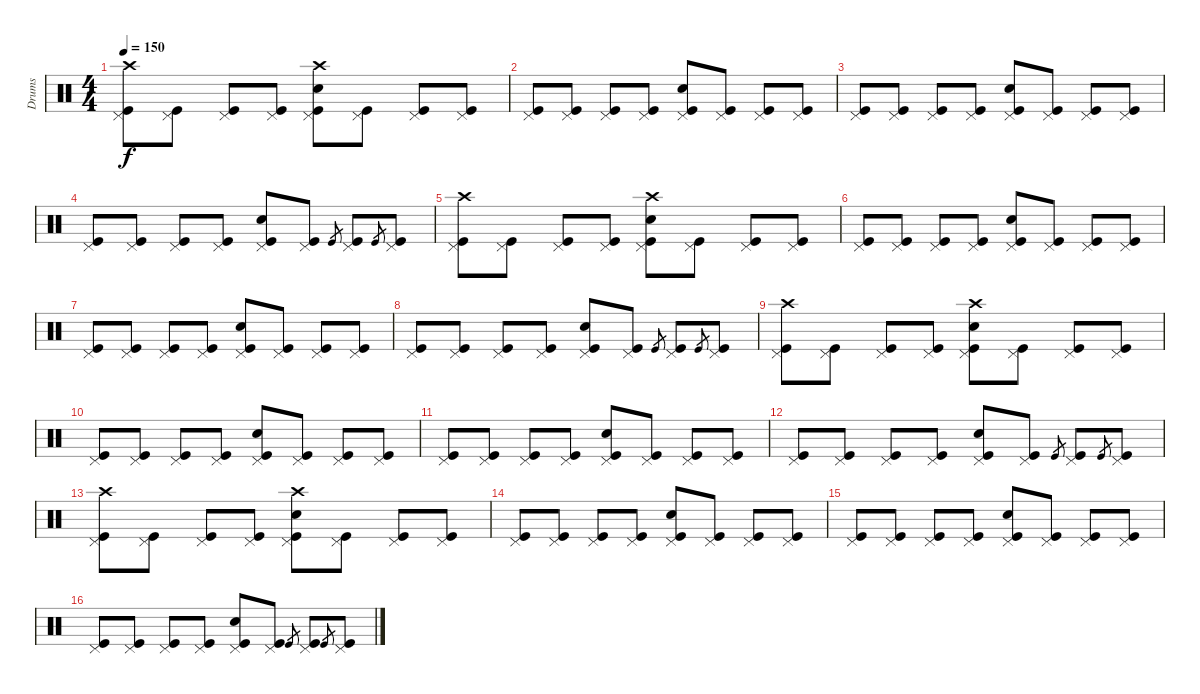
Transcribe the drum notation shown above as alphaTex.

\track ("Drums" "Drums") {instrument percussion}
\staff {score}
\articulation defaults
\ts (4 4)
\section ("" "")
\tempo 150
\clef neutral
\ks c
("Crash high (hit)" "Pedal Hi-Hat (hit)" "Kick (hit)").8{dy f} ("Pedal Hi-Hat (hit)" "Kick (hit)").8 ("Pedal Hi-Hat (hit)" "Kick (hit)").8 ("Pedal Hi-Hat (hit)" "Kick (hit)").8 ("Crash high (hit)" "Pedal Hi-Hat (hit)" "Snare (hit) 2" "Kick (hit)").8 ("Pedal Hi-Hat (hit)" "Kick (hit)").8 ("Pedal Hi-Hat (hit)" "Kick (hit)").8 ("Pedal Hi-Hat (hit)" "Kick (hit)").8 |
("Pedal Hi-Hat (hit)" "Kick (hit)").8 ("Pedal Hi-Hat (hit)" "Kick (hit)").8 ("Pedal Hi-Hat (hit)" "Kick (hit)").8 ("Pedal Hi-Hat (hit)" "Kick (hit)").8 ("Pedal Hi-Hat (hit)" "Snare (hit) 2" "Kick (hit)").8 ("Pedal Hi-Hat (hit)" "Kick (hit)").8 ("Pedal Hi-Hat (hit)" "Kick (hit)").8 ("Pedal Hi-Hat (hit)" "Kick (hit)").8 |
("Pedal Hi-Hat (hit)" "Kick (hit)").8 ("Pedal Hi-Hat (hit)" "Kick (hit)").8 ("Pedal Hi-Hat (hit)" "Kick (hit)").8 ("Pedal Hi-Hat (hit)" "Kick (hit)").8 ("Pedal Hi-Hat (hit)" "Snare (hit) 2" "Kick (hit)").8 ("Pedal Hi-Hat (hit)" "Kick (hit)").8 ("Pedal Hi-Hat (hit)" "Kick (hit)").8 ("Pedal Hi-Hat (hit)" "Kick (hit)").8 |
("Pedal Hi-Hat (hit)" "Kick (hit)").8 ("Pedal Hi-Hat (hit)" "Kick (hit)").8 ("Pedal Hi-Hat (hit)" "Kick (hit)").8 ("Pedal Hi-Hat (hit)" "Kick (hit)").8 ("Pedal Hi-Hat (hit)" "Snare (hit) 2" "Kick (hit)").8 ("Pedal Hi-Hat (hit)" "Kick (hit)").8 "Kick (hit)".8{gr} ("Pedal Hi-Hat (hit)" "Kick (hit)").8 "Kick (hit)".8{gr} ("Pedal Hi-Hat (hit)" "Kick (hit)").8 |
("Crash high (hit)" "Pedal Hi-Hat (hit)" "Kick (hit)").8 ("Pedal Hi-Hat (hit)" "Kick (hit)").8 ("Pedal Hi-Hat (hit)" "Kick (hit)").8 ("Pedal Hi-Hat (hit)" "Kick (hit)").8 ("Crash high (hit)" "Pedal Hi-Hat (hit)" "Snare (hit) 2" "Kick (hit)").8 ("Pedal Hi-Hat (hit)" "Kick (hit)").8 ("Pedal Hi-Hat (hit)" "Kick (hit)").8 ("Pedal Hi-Hat (hit)" "Kick (hit)").8 |
("Pedal Hi-Hat (hit)" "Kick (hit)").8 ("Pedal Hi-Hat (hit)" "Kick (hit)").8 ("Pedal Hi-Hat (hit)" "Kick (hit)").8 ("Pedal Hi-Hat (hit)" "Kick (hit)").8 ("Pedal Hi-Hat (hit)" "Snare (hit) 2" "Kick (hit)").8 ("Pedal Hi-Hat (hit)" "Kick (hit)").8 ("Pedal Hi-Hat (hit)" "Kick (hit)").8 ("Pedal Hi-Hat (hit)" "Kick (hit)").8 |
("Pedal Hi-Hat (hit)" "Kick (hit)").8 ("Pedal Hi-Hat (hit)" "Kick (hit)").8 ("Pedal Hi-Hat (hit)" "Kick (hit)").8 ("Pedal Hi-Hat (hit)" "Kick (hit)").8 ("Pedal Hi-Hat (hit)" "Snare (hit) 2" "Kick (hit)").8 ("Pedal Hi-Hat (hit)" "Kick (hit)").8 ("Pedal Hi-Hat (hit)" "Kick (hit)").8 ("Pedal Hi-Hat (hit)" "Kick (hit)").8 |
("Pedal Hi-Hat (hit)" "Kick (hit)").8 ("Pedal Hi-Hat (hit)" "Kick (hit)").8 ("Pedal Hi-Hat (hit)" "Kick (hit)").8 ("Pedal Hi-Hat (hit)" "Kick (hit)").8 ("Pedal Hi-Hat (hit)" "Snare (hit) 2" "Kick (hit)").8 ("Pedal Hi-Hat (hit)" "Kick (hit)").8 "Kick (hit)".8{gr} ("Pedal Hi-Hat (hit)" "Kick (hit)").8 "Kick (hit)".8{gr} ("Pedal Hi-Hat (hit)" "Kick (hit)").8 |
("Crash high (hit)" "Pedal Hi-Hat (hit)" "Kick (hit)").8 ("Pedal Hi-Hat (hit)" "Kick (hit)").8 ("Pedal Hi-Hat (hit)" "Kick (hit)").8 ("Pedal Hi-Hat (hit)" "Kick (hit)").8 ("Crash high (hit)" "Pedal Hi-Hat (hit)" "Snare (hit) 2" "Kick (hit)").8 ("Pedal Hi-Hat (hit)" "Kick (hit)").8 ("Pedal Hi-Hat (hit)" "Kick (hit)").8 ("Pedal Hi-Hat (hit)" "Kick (hit)").8 |
("Pedal Hi-Hat (hit)" "Kick (hit)").8 ("Pedal Hi-Hat (hit)" "Kick (hit)").8 ("Pedal Hi-Hat (hit)" "Kick (hit)").8 ("Pedal Hi-Hat (hit)" "Kick (hit)").8 ("Pedal Hi-Hat (hit)" "Snare (hit) 2" "Kick (hit)").8 ("Pedal Hi-Hat (hit)" "Kick (hit)").8 ("Pedal Hi-Hat (hit)" "Kick (hit)").8 ("Pedal Hi-Hat (hit)" "Kick (hit)").8 |
("Pedal Hi-Hat (hit)" "Kick (hit)").8 ("Pedal Hi-Hat (hit)" "Kick (hit)").8 ("Pedal Hi-Hat (hit)" "Kick (hit)").8 ("Pedal Hi-Hat (hit)" "Kick (hit)").8 ("Pedal Hi-Hat (hit)" "Snare (hit) 2" "Kick (hit)").8 ("Pedal Hi-Hat (hit)" "Kick (hit)").8 ("Pedal Hi-Hat (hit)" "Kick (hit)").8 ("Pedal Hi-Hat (hit)" "Kick (hit)").8 |
("Pedal Hi-Hat (hit)" "Kick (hit)").8 ("Pedal Hi-Hat (hit)" "Kick (hit)").8 ("Pedal Hi-Hat (hit)" "Kick (hit)").8 ("Pedal Hi-Hat (hit)" "Kick (hit)").8 ("Pedal Hi-Hat (hit)" "Snare (hit) 2" "Kick (hit)").8 ("Pedal Hi-Hat (hit)" "Kick (hit)").8 "Kick (hit)".8{gr} ("Pedal Hi-Hat (hit)" "Kick (hit)").8 "Kick (hit)".8{gr} ("Pedal Hi-Hat (hit)" "Kick (hit)").8 |
("Crash high (hit)" "Pedal Hi-Hat (hit)" "Kick (hit)").8 ("Pedal Hi-Hat (hit)" "Kick (hit)").8 ("Pedal Hi-Hat (hit)" "Kick (hit)").8 ("Pedal Hi-Hat (hit)" "Kick (hit)").8 ("Crash high (hit)" "Pedal Hi-Hat (hit)" "Snare (hit) 2" "Kick (hit)").8 ("Pedal Hi-Hat (hit)" "Kick (hit)").8 ("Pedal Hi-Hat (hit)" "Kick (hit)").8 ("Pedal Hi-Hat (hit)" "Kick (hit)").8 |
("Pedal Hi-Hat (hit)" "Kick (hit)").8 ("Pedal Hi-Hat (hit)" "Kick (hit)").8 ("Pedal Hi-Hat (hit)" "Kick (hit)").8 ("Pedal Hi-Hat (hit)" "Kick (hit)").8 ("Pedal Hi-Hat (hit)" "Snare (hit) 2" "Kick (hit)").8 ("Pedal Hi-Hat (hit)" "Kick (hit)").8 ("Pedal Hi-Hat (hit)" "Kick (hit)").8 ("Pedal Hi-Hat (hit)" "Kick (hit)").8 |
("Pedal Hi-Hat (hit)" "Kick (hit)").8 ("Pedal Hi-Hat (hit)" "Kick (hit)").8 ("Pedal Hi-Hat (hit)" "Kick (hit)").8 ("Pedal Hi-Hat (hit)" "Kick (hit)").8 ("Pedal Hi-Hat (hit)" "Snare (hit) 2" "Kick (hit)").8 ("Pedal Hi-Hat (hit)" "Kick (hit)").8 ("Pedal Hi-Hat (hit)" "Kick (hit)").8 ("Pedal Hi-Hat (hit)" "Kick (hit)").8 |
("Pedal Hi-Hat (hit)" "Kick (hit)").8 ("Pedal Hi-Hat (hit)" "Kick (hit)").8 ("Pedal Hi-Hat (hit)" "Kick (hit)").8 ("Pedal Hi-Hat (hit)" "Kick (hit)").8 ("Pedal Hi-Hat (hit)" "Snare (hit) 2" "Kick (hit)").8 ("Pedal Hi-Hat (hit)" "Kick (hit)").8 "Kick (hit)".8{gr} ("Pedal Hi-Hat (hit)" "Kick (hit)").8 "Kick (hit)".8{gr} ("Pedal Hi-Hat (hit)" "Kick (hit)").8
